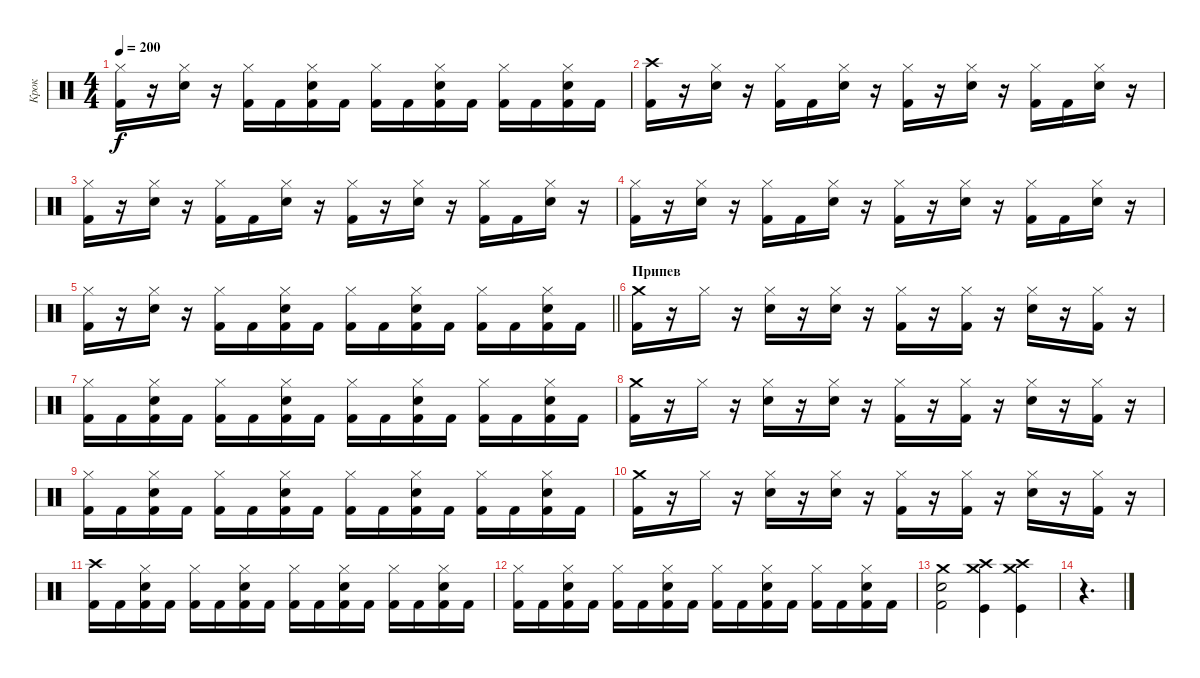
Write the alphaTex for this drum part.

\track ("Крок" "Крок") {instrument percussion}
\staff {score}
\articulation defaults
\ts (4 4)
\tempo 200
\clef neutral
\ks c
("Hi-Hat (closed)" "Kick (hit) 2").16{dy f} r.16 ("Hi-Hat (closed)" "Electric Snare (hit)").16 r.16 ("Hi-Hat (closed)" "Kick (hit) 2").16 "Kick (hit) 2".16 ("Hi-Hat (closed)" "Electric Snare (hit)" "Kick (hit) 2").16 "Kick (hit) 2".16 ("Hi-Hat (closed)" "Kick (hit) 2").16 "Kick (hit) 2".16 ("Hi-Hat (closed)" "Kick (hit) 2" "Electric Snare (hit)").16 "Kick (hit) 2".16 ("Hi-Hat (closed)" "Kick (hit) 2").16 "Kick (hit) 2".16 ("Hi-Hat (closed)" "Kick (hit) 2" "Electric Snare (hit)").16 "Kick (hit) 2".16 |
("Crash high (hit)" "Kick (hit) 2").16 r.16 ("Hi-Hat (closed)" "Electric Snare (hit)").16 r.16 ("Hi-Hat (closed)" "Kick (hit) 2").16 "Kick (hit) 2".16 ("Hi-Hat (closed)" "Electric Snare (hit)").16 r.16 ("Hi-Hat (closed)" "Kick (hit) 2").16 r.16 ("Hi-Hat (closed)" "Electric Snare (hit)").16 r.16 ("Hi-Hat (closed)" "Kick (hit) 2").16 "Kick (hit) 2".16 ("Hi-Hat (closed)" "Electric Snare (hit)").16 r.16 |
("Hi-Hat (closed)" "Kick (hit) 2").16 r.16 ("Hi-Hat (closed)" "Electric Snare (hit)").16 r.16 ("Hi-Hat (closed)" "Kick (hit) 2").16 "Kick (hit) 2".16 ("Hi-Hat (closed)" "Electric Snare (hit)").16 r.16 ("Hi-Hat (closed)" "Kick (hit) 2").16 r.16 ("Hi-Hat (closed)" "Electric Snare (hit)").16 r.16 ("Hi-Hat (closed)" "Kick (hit) 2").16 "Kick (hit) 2".16 ("Hi-Hat (closed)" "Electric Snare (hit)").16 r.16 |
("Hi-Hat (closed)" "Kick (hit) 2").16 r.16 ("Hi-Hat (closed)" "Electric Snare (hit)").16 r.16 ("Hi-Hat (closed)" "Kick (hit) 2").16 "Kick (hit) 2".16 ("Hi-Hat (closed)" "Electric Snare (hit)").16 r.16 ("Hi-Hat (closed)" "Kick (hit) 2").16 r.16 ("Hi-Hat (closed)" "Electric Snare (hit)").16 r.16 ("Hi-Hat (closed)" "Kick (hit) 2").16 "Kick (hit) 2".16 ("Hi-Hat (closed)" "Electric Snare (hit)").16 r.16 |
\barLineRight lightlight
("Hi-Hat (closed)" "Kick (hit) 2").16 r.16 ("Hi-Hat (closed)" "Electric Snare (hit)").16 r.16 ("Hi-Hat (closed)" "Kick (hit) 2").16 "Kick (hit) 2".16 ("Hi-Hat (closed)" "Electric Snare (hit)" "Kick (hit) 2").16 "Kick (hit) 2".16 ("Hi-Hat (closed)" "Kick (hit) 2").16 "Kick (hit) 2".16 ("Hi-Hat (closed)" "Kick (hit) 2" "Electric Snare (hit)").16 "Kick (hit) 2".16 ("Hi-Hat (closed)" "Kick (hit) 2").16 "Kick (hit) 2".16 ("Hi-Hat (closed)" "Kick (hit) 2" "Electric Snare (hit)").16 "Kick (hit) 2".16 |
\section ("" "Припев")
("Kick (hit) 2" "Crash medium (hit)").16 r.16 "Hi-Hat (closed)".16 r.16 ("Electric Snare (hit)" "Hi-Hat (closed)").16 r.16 ("Electric Snare (hit)" "Hi-Hat (closed)").16 r.16 ("Kick (hit) 2" "Hi-Hat (closed)").16 r.16 ("Kick (hit) 2" "Hi-Hat (closed)").16 r.16 ("Electric Snare (hit)" "Hi-Hat (closed)").16 r.16 ("Kick (hit) 2" "Hi-Hat (closed)").16 r.16 |
("Kick (hit) 2" "Hi-Hat (closed)").16 "Kick (hit) 2".16 ("Kick (hit) 2" "Electric Snare (hit)" "Hi-Hat (closed)").16 "Kick (hit) 2".16 ("Kick (hit) 2" "Hi-Hat (closed)").16 "Kick (hit) 2".16 ("Kick (hit) 2" "Electric Snare (hit)" "Hi-Hat (closed)").16 "Kick (hit) 2".16 ("Kick (hit) 2" "Hi-Hat (closed)").16 "Kick (hit) 2".16 ("Kick (hit) 2" "Electric Snare (hit)" "Hi-Hat (closed)").16 "Kick (hit) 2".16 ("Kick (hit) 2" "Hi-Hat (closed)").16 "Kick (hit) 2".16 ("Kick (hit) 2" "Electric Snare (hit)" "Hi-Hat (closed)").16 "Kick (hit) 2".16 |
("Kick (hit) 2" "Crash medium (hit)").16 r.16 "Hi-Hat (closed)".16 r.16 ("Electric Snare (hit)" "Hi-Hat (closed)").16 r.16 ("Electric Snare (hit)" "Hi-Hat (closed)").16 r.16 ("Kick (hit) 2" "Hi-Hat (closed)").16 r.16 ("Kick (hit) 2" "Hi-Hat (closed)").16 r.16 ("Electric Snare (hit)" "Hi-Hat (closed)").16 r.16 ("Kick (hit) 2" "Hi-Hat (closed)").16 r.16 |
("Kick (hit) 2" "Hi-Hat (closed)").16 "Kick (hit) 2".16 ("Kick (hit) 2" "Electric Snare (hit)" "Hi-Hat (closed)").16 "Kick (hit) 2".16 ("Kick (hit) 2" "Hi-Hat (closed)").16 "Kick (hit) 2".16 ("Kick (hit) 2" "Electric Snare (hit)" "Hi-Hat (closed)").16 "Kick (hit) 2".16 ("Kick (hit) 2" "Hi-Hat (closed)").16 "Kick (hit) 2".16 ("Kick (hit) 2" "Electric Snare (hit)" "Hi-Hat (closed)").16 "Kick (hit) 2".16 ("Kick (hit) 2" "Hi-Hat (closed)").16 "Kick (hit) 2".16 ("Kick (hit) 2" "Electric Snare (hit)" "Hi-Hat (closed)").16 "Kick (hit) 2".16 |
("Kick (hit) 2" "Crash medium (hit)").16 r.16 "Hi-Hat (closed)".16 r.16 ("Electric Snare (hit)" "Hi-Hat (closed)").16 r.16 ("Electric Snare (hit)" "Hi-Hat (closed)").16 r.16 ("Kick (hit) 2" "Hi-Hat (closed)").16 r.16 ("Kick (hit) 2" "Hi-Hat (closed)").16 r.16 ("Electric Snare (hit)" "Hi-Hat (closed)").16 r.16 ("Kick (hit) 2" "Hi-Hat (closed)").16 r.16 |
("Kick (hit) 2" "Crash high (hit)").16 "Kick (hit) 2".16 ("Kick (hit) 2" "Electric Snare (hit)" "Hi-Hat (closed)").16 "Kick (hit) 2".16 ("Kick (hit) 2" "Hi-Hat (closed)").16 "Kick (hit) 2".16 ("Kick (hit) 2" "Electric Snare (hit)" "Hi-Hat (closed)").16 "Kick (hit) 2".16 ("Kick (hit) 2" "Hi-Hat (closed)").16 "Kick (hit) 2".16 ("Kick (hit) 2" "Electric Snare (hit)" "Hi-Hat (closed)").16 "Kick (hit) 2".16 ("Kick (hit) 2" "Hi-Hat (closed)").16 "Kick (hit) 2".16 ("Kick (hit) 2" "Electric Snare (hit)" "Hi-Hat (closed)").16 "Kick (hit) 2".16 |
("Kick (hit) 2" "Hi-Hat (closed)").16 "Kick (hit) 2".16 ("Kick (hit) 2" "Electric Snare (hit)" "Hi-Hat (closed)").16 "Kick (hit) 2".16 ("Kick (hit) 2" "Hi-Hat (closed)").16 "Kick (hit) 2".16 ("Kick (hit) 2" "Electric Snare (hit)" "Hi-Hat (closed)").16 "Kick (hit) 2".16 ("Kick (hit) 2" "Hi-Hat (closed)").16 "Kick (hit) 2".16 ("Kick (hit) 2" "Electric Snare (hit)" "Hi-Hat (closed)").16 "Kick (hit) 2".16 ("Kick (hit) 2" "Hi-Hat (closed)").16 "Kick (hit) 2".16 ("Kick (hit) 2" "Electric Snare (hit)" "Hi-Hat (closed)").16 "Kick (hit) 2".16 |
("Kick (hit) 2" "Electric Snare (hit)" "Crash medium (hit)").2 ("Kick (hit)" "Crash high (hit)" "Crash medium (hit)").4 ("Kick (hit)" "Crash medium (hit)" "Crash high (hit)").4 |
r.4{d}
